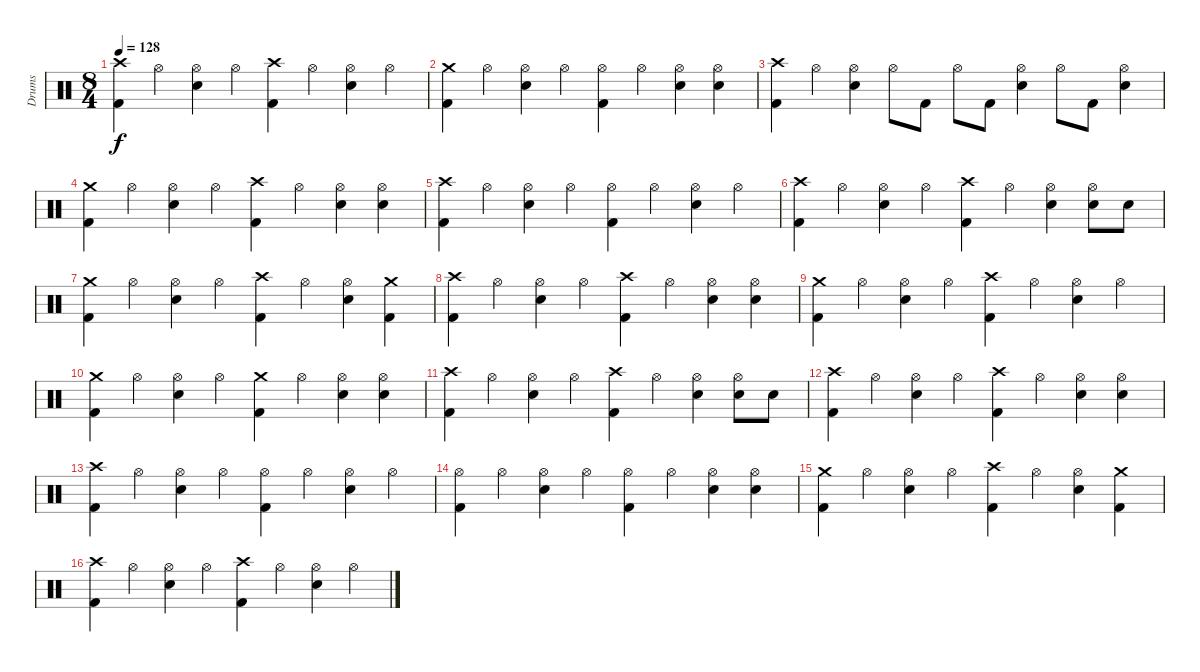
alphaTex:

\track ("Drums" "Drums") {instrument percussion}
\staff {score}
\articulation defaults
\ts (8 4)
\tempo 128
\clef neutral
\ks c
("Crash high (hit)" "Kick (hit) 2").4{dy f} "Hi-Hat (open)".4 ("Hi-Hat (open)" "Electric Snare (hit)").4 "Hi-Hat (open)".4 ("Crash high (hit)" "Kick (hit) 2").4 "Hi-Hat (open)".4 ("Hi-Hat (open)" "Electric Snare (hit)").4 "Hi-Hat (open)".4 |
("Crash medium (hit)" "Kick (hit) 2").4 "Hi-Hat (open)".4 ("Hi-Hat (open)" "Electric Snare (hit)").4 "Hi-Hat (open)".4 ("Hi-Hat (open)" "Kick (hit) 2").4 "Hi-Hat (open)".4 ("Hi-Hat (open)" "Electric Snare (hit)").4 ("Hi-Hat (open)" "Electric Snare (hit)").4 |
("Crash high (hit)" "Kick (hit) 2").4 "Hi-Hat (open)".4 ("Hi-Hat (open)" "Electric Snare (hit)").4 "Hi-Hat (open)".8 "Kick (hit) 2".8 "Hi-Hat (open)".8 "Kick (hit) 2".8 ("Hi-Hat (open)" "Electric Snare (hit)").4 "Hi-Hat (open)".8 "Kick (hit) 2".8 ("Hi-Hat (open)" "Electric Snare (hit)").4 |
("Crash medium (hit)" "Kick (hit) 2").4 "Hi-Hat (open)".4 ("Hi-Hat (open)" "Electric Snare (hit)").4 "Hi-Hat (open)".4 ("Crash high (hit)" "Kick (hit) 2").4 "Hi-Hat (open)".4 ("Hi-Hat (open)" "Electric Snare (hit)").4 ("Hi-Hat (open)" "Electric Snare (hit)").4 |
("Crash high (hit)" "Kick (hit) 2").4 "Hi-Hat (open)".4 ("Hi-Hat (open)" "Electric Snare (hit)").4 "Hi-Hat (open)".4 ("Hi-Hat (open)" "Kick (hit) 2").4 "Hi-Hat (open)".4 ("Hi-Hat (open)" "Electric Snare (hit)").4 "Hi-Hat (open)".4 |
("Crash high (hit)" "Kick (hit) 2").4 "Hi-Hat (open)".4 ("Hi-Hat (open)" "Electric Snare (hit)").4 "Hi-Hat (open)".4 ("Crash high (hit)" "Kick (hit) 2").4 "Hi-Hat (open)".4 ("Hi-Hat (open)" "Electric Snare (hit)").4 ("Hi-Hat (open)" "Electric Snare (hit)").8 "Electric Snare (hit)".8 |
("Crash medium (hit)" "Kick (hit) 2").4 "Hi-Hat (open)".4 ("Hi-Hat (open)" "Electric Snare (hit)").4 "Hi-Hat (open)".4 ("Crash high (hit)" "Kick (hit) 2").4 "Hi-Hat (open)".4 ("Hi-Hat (open)" "Electric Snare (hit)").4 ("Crash medium (hit)" "Kick (hit) 2").4 |
("Crash high (hit)" "Kick (hit) 2").4 "Hi-Hat (open)".4 ("Hi-Hat (open)" "Electric Snare (hit)").4 "Hi-Hat (open)".4 ("Crash high (hit)" "Kick (hit) 2").4 "Hi-Hat (open)".4 ("Hi-Hat (open)" "Electric Snare (hit)").4 ("Hi-Hat (open)" "Electric Snare (hit)").4 |
("Crash medium (hit)" "Kick (hit) 2").4 "Hi-Hat (open)".4 ("Hi-Hat (open)" "Electric Snare (hit)").4 "Hi-Hat (open)".4 ("Crash high (hit)" "Kick (hit) 2").4 "Hi-Hat (open)".4 ("Hi-Hat (open)" "Electric Snare (hit)").4 "Hi-Hat (open)".4 |
("Crash medium (hit)" "Kick (hit) 2").4 "Hi-Hat (open)".4 ("Hi-Hat (open)" "Electric Snare (hit)").4 "Hi-Hat (open)".4 ("Crash medium (hit)" "Kick (hit) 2").4 "Hi-Hat (open)".4 ("Hi-Hat (open)" "Electric Snare (hit)").4 ("Hi-Hat (open)" "Electric Snare (hit)").4 |
("Crash high (hit)" "Kick (hit) 2").4 "Hi-Hat (open)".4 ("Hi-Hat (open)" "Electric Snare (hit)").4 "Hi-Hat (open)".4 ("Crash high (hit)" "Kick (hit) 2").4 "Hi-Hat (open)".4 ("Hi-Hat (open)" "Electric Snare (hit)").4 ("Hi-Hat (open)" "Electric Snare (hit)").8 "Electric Snare (hit)".8 |
("Crash high (hit)" "Kick (hit) 2").4 "Hi-Hat (open)".4 ("Hi-Hat (open)" "Electric Snare (hit)").4 "Hi-Hat (open)".4 ("Crash high (hit)" "Kick (hit) 2").4 "Hi-Hat (open)".4 ("Hi-Hat (open)" "Electric Snare (hit)").4 ("Hi-Hat (open)" "Electric Snare (hit)").4 |
("Crash high (hit)" "Kick (hit) 2").4 "Hi-Hat (open)".4 ("Hi-Hat (open)" "Electric Snare (hit)").4 "Hi-Hat (open)".4 ("Hi-Hat (open)" "Kick (hit) 2").4 "Hi-Hat (open)".4 ("Hi-Hat (open)" "Electric Snare (hit)").4 "Hi-Hat (open)".4 |
("Hi-Hat (open)" "Kick (hit) 2").4 "Hi-Hat (open)".4 ("Hi-Hat (open)" "Electric Snare (hit)").4 "Hi-Hat (open)".4 ("Hi-Hat (open)" "Kick (hit) 2").4 "Hi-Hat (open)".4 ("Hi-Hat (open)" "Electric Snare (hit)").4 ("Hi-Hat (open)" "Electric Snare (hit)").4 |
("Crash medium (hit)" "Kick (hit) 2").4 "Hi-Hat (open)".4 ("Hi-Hat (open)" "Electric Snare (hit)").4 "Hi-Hat (open)".4 ("Crash high (hit)" "Kick (hit) 2").4 "Hi-Hat (open)".4 ("Hi-Hat (open)" "Electric Snare (hit)").4 ("Crash medium (hit)" "Kick (hit) 2").4 |
("Crash high (hit)" "Kick (hit) 2").4 "Hi-Hat (open)".4 ("Hi-Hat (open)" "Electric Snare (hit)").4 "Hi-Hat (open)".4 ("Crash high (hit)" "Kick (hit) 2").4 "Hi-Hat (open)".4 ("Hi-Hat (open)" "Electric Snare (hit)").4 "Hi-Hat (open)".4
